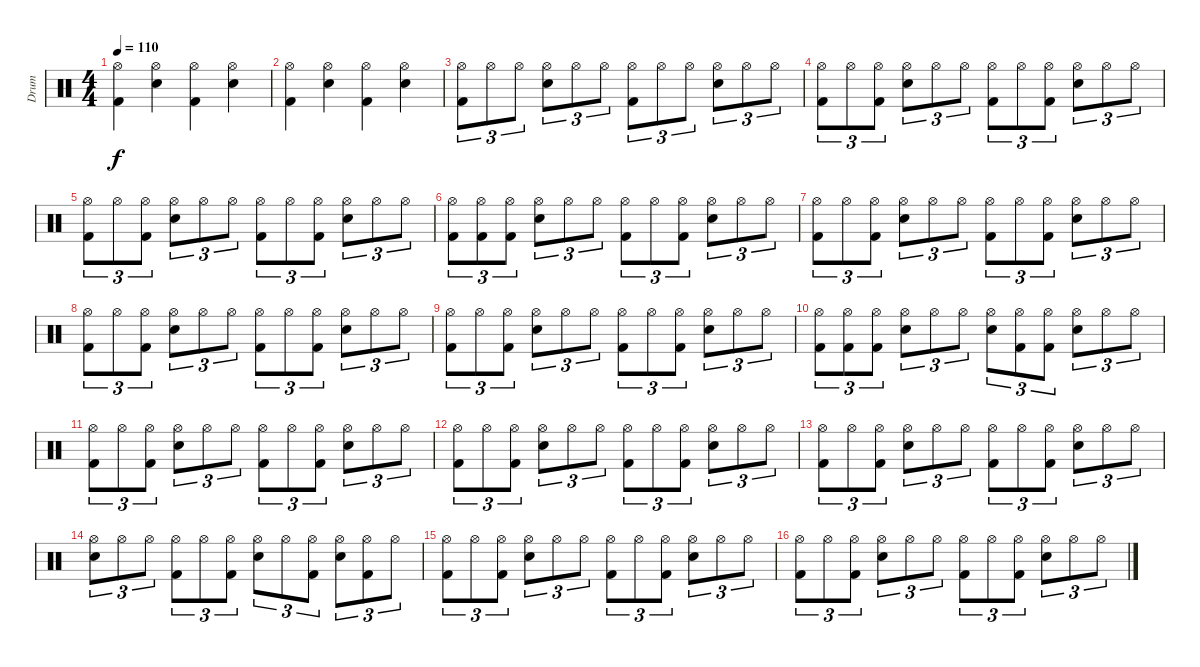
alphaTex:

\track ("Drum" "Drum") {instrument percussion}
\staff {score}
\articulation defaults
\ts (4 4)
\tempo 110
\clef neutral
\ks c
("Hi-Hat (open)" "Kick (hit) 2").4{dy f} ("Hi-Hat (open)" "Electric Snare (hit)").4 ("Hi-Hat (open)" "Kick (hit) 2").4 ("Hi-Hat (open)" "Electric Snare (hit)").4 |
("Hi-Hat (open)" "Kick (hit) 2").4 ("Hi-Hat (open)" "Electric Snare (hit)").4 ("Hi-Hat (open)" "Kick (hit) 2").4 ("Hi-Hat (open)" "Electric Snare (hit)").4 |
("Hi-Hat (open)" "Kick (hit) 2").8{tu (3 2)} "Hi-Hat (open)".8{tu (3 2)} "Hi-Hat (open)".8{tu (3 2)} ("Hi-Hat (open)" "Electric Snare (hit)").8{tu (3 2)} "Hi-Hat (open)".8{tu (3 2)} "Hi-Hat (open)".8{tu (3 2)} ("Hi-Hat (open)" "Kick (hit) 2").8{tu (3 2)} "Hi-Hat (open)".8{tu (3 2)} "Hi-Hat (open)".8{tu (3 2)} ("Hi-Hat (open)" "Electric Snare (hit)").8{tu (3 2)} "Hi-Hat (open)".8{tu (3 2)} "Hi-Hat (open)".8{tu (3 2)} |
("Hi-Hat (open)" "Kick (hit) 2").8{tu (3 2)} "Hi-Hat (open)".8{tu (3 2)} ("Hi-Hat (open)" "Kick (hit) 2").8{tu (3 2)} ("Hi-Hat (open)" "Electric Snare (hit)").8{tu (3 2)} "Hi-Hat (open)".8{tu (3 2)} "Hi-Hat (open)".8{tu (3 2)} ("Hi-Hat (open)" "Kick (hit) 2").8{tu (3 2)} "Hi-Hat (open)".8{tu (3 2)} ("Hi-Hat (open)" "Kick (hit) 2").8{tu (3 2)} ("Hi-Hat (open)" "Electric Snare (hit)").8{tu (3 2)} "Hi-Hat (open)".8{tu (3 2)} "Hi-Hat (open)".8{tu (3 2)} |
("Hi-Hat (open)" "Kick (hit) 2").8{tu (3 2)} "Hi-Hat (open)".8{tu (3 2)} ("Hi-Hat (open)" "Kick (hit) 2").8{tu (3 2)} ("Hi-Hat (open)" "Electric Snare (hit)").8{tu (3 2)} "Hi-Hat (open)".8{tu (3 2)} "Hi-Hat (open)".8{tu (3 2)} ("Hi-Hat (open)" "Kick (hit) 2").8{tu (3 2)} "Hi-Hat (open)".8{tu (3 2)} ("Hi-Hat (open)" "Kick (hit) 2").8{tu (3 2)} ("Hi-Hat (open)" "Electric Snare (hit)").8{tu (3 2)} "Hi-Hat (open)".8{tu (3 2)} "Hi-Hat (open)".8{tu (3 2)} |
("Hi-Hat (open)" "Kick (hit) 2").8{tu (3 2)} ("Hi-Hat (open)" "Kick (hit) 2").8{tu (3 2)} ("Hi-Hat (open)" "Kick (hit) 2").8{tu (3 2)} ("Hi-Hat (open)" "Electric Snare (hit)").8{tu (3 2)} "Hi-Hat (open)".8{tu (3 2)} "Hi-Hat (open)".8{tu (3 2)} ("Hi-Hat (open)" "Kick (hit) 2").8{tu (3 2)} "Hi-Hat (open)".8{tu (3 2)} ("Hi-Hat (open)" "Kick (hit) 2").8{tu (3 2)} ("Hi-Hat (open)" "Electric Snare (hit)").8{tu (3 2)} "Hi-Hat (open)".8{tu (3 2)} "Hi-Hat (open)".8{tu (3 2)} |
("Hi-Hat (open)" "Kick (hit) 2").8{tu (3 2)} "Hi-Hat (open)".8{tu (3 2)} ("Hi-Hat (open)" "Kick (hit) 2").8{tu (3 2)} ("Hi-Hat (open)" "Electric Snare (hit)").8{tu (3 2)} "Hi-Hat (open)".8{tu (3 2)} "Hi-Hat (open)".8{tu (3 2)} ("Hi-Hat (open)" "Kick (hit) 2").8{tu (3 2)} "Hi-Hat (open)".8{tu (3 2)} ("Hi-Hat (open)" "Kick (hit) 2").8{tu (3 2)} ("Hi-Hat (open)" "Electric Snare (hit)").8{tu (3 2)} "Hi-Hat (open)".8{tu (3 2)} "Hi-Hat (open)".8{tu (3 2)} |
("Hi-Hat (open)" "Kick (hit) 2").8{tu (3 2)} "Hi-Hat (open)".8{tu (3 2)} ("Hi-Hat (open)" "Kick (hit) 2").8{tu (3 2)} ("Hi-Hat (open)" "Electric Snare (hit)").8{tu (3 2)} "Hi-Hat (open)".8{tu (3 2)} "Hi-Hat (open)".8{tu (3 2)} ("Hi-Hat (open)" "Kick (hit) 2").8{tu (3 2)} "Hi-Hat (open)".8{tu (3 2)} ("Hi-Hat (open)" "Kick (hit) 2").8{tu (3 2)} ("Hi-Hat (open)" "Electric Snare (hit)").8{tu (3 2)} "Hi-Hat (open)".8{tu (3 2)} "Hi-Hat (open)".8{tu (3 2)} |
("Hi-Hat (open)" "Kick (hit) 2").8{tu (3 2)} "Hi-Hat (open)".8{tu (3 2)} ("Hi-Hat (open)" "Kick (hit) 2").8{tu (3 2)} ("Hi-Hat (open)" "Electric Snare (hit)").8{tu (3 2)} "Hi-Hat (open)".8{tu (3 2)} "Hi-Hat (open)".8{tu (3 2)} ("Hi-Hat (open)" "Kick (hit) 2").8{tu (3 2)} "Hi-Hat (open)".8{tu (3 2)} ("Hi-Hat (open)" "Kick (hit) 2").8{tu (3 2)} ("Hi-Hat (open)" "Electric Snare (hit)").8{tu (3 2)} "Hi-Hat (open)".8{tu (3 2)} "Hi-Hat (open)".8{tu (3 2)} |
("Hi-Hat (open)" "Kick (hit) 2").8{tu (3 2)} ("Hi-Hat (open)" "Kick (hit) 2").8{tu (3 2)} ("Hi-Hat (open)" "Kick (hit) 2").8{tu (3 2)} ("Hi-Hat (open)" "Electric Snare (hit)").8{tu (3 2)} "Hi-Hat (open)".8{tu (3 2)} "Hi-Hat (open)".8{tu (3 2)} ("Hi-Hat (open)" "Electric Snare (hit)").8{tu (3 2)} ("Hi-Hat (open)" "Kick (hit) 2").8{tu (3 2)} ("Hi-Hat (open)" "Kick (hit) 2").8{tu (3 2)} ("Hi-Hat (open)" "Electric Snare (hit)").8{tu (3 2)} "Hi-Hat (open)".8{tu (3 2)} "Hi-Hat (open)".8{tu (3 2)} |
("Hi-Hat (open)" "Kick (hit) 2").8{tu (3 2)} "Hi-Hat (open)".8{tu (3 2)} ("Hi-Hat (open)" "Kick (hit) 2").8{tu (3 2)} ("Hi-Hat (open)" "Electric Snare (hit)").8{tu (3 2)} "Hi-Hat (open)".8{tu (3 2)} "Hi-Hat (open)".8{tu (3 2)} ("Hi-Hat (open)" "Kick (hit) 2").8{tu (3 2)} "Hi-Hat (open)".8{tu (3 2)} ("Hi-Hat (open)" "Kick (hit) 2").8{tu (3 2)} ("Hi-Hat (open)" "Electric Snare (hit)").8{tu (3 2)} "Hi-Hat (open)".8{tu (3 2)} "Hi-Hat (open)".8{tu (3 2)} |
("Hi-Hat (open)" "Kick (hit) 2").8{tu (3 2)} "Hi-Hat (open)".8{tu (3 2)} ("Hi-Hat (open)" "Kick (hit) 2").8{tu (3 2)} ("Hi-Hat (open)" "Electric Snare (hit)").8{tu (3 2)} "Hi-Hat (open)".8{tu (3 2)} "Hi-Hat (open)".8{tu (3 2)} ("Hi-Hat (open)" "Kick (hit) 2").8{tu (3 2)} "Hi-Hat (open)".8{tu (3 2)} ("Hi-Hat (open)" "Kick (hit) 2").8{tu (3 2)} ("Hi-Hat (open)" "Electric Snare (hit)").8{tu (3 2)} "Hi-Hat (open)".8{tu (3 2)} "Hi-Hat (open)".8{tu (3 2)} |
("Hi-Hat (open)" "Kick (hit) 2").8{tu (3 2)} "Hi-Hat (open)".8{tu (3 2)} ("Hi-Hat (open)" "Kick (hit) 2").8{tu (3 2)} ("Hi-Hat (open)" "Electric Snare (hit)").8{tu (3 2)} "Hi-Hat (open)".8{tu (3 2)} "Hi-Hat (open)".8{tu (3 2)} ("Hi-Hat (open)" "Kick (hit) 2").8{tu (3 2)} "Hi-Hat (open)".8{tu (3 2)} ("Hi-Hat (open)" "Kick (hit) 2").8{tu (3 2)} ("Hi-Hat (open)" "Electric Snare (hit)").8{tu (3 2)} "Hi-Hat (open)".8{tu (3 2)} "Hi-Hat (open)".8{tu (3 2)} |
("Hi-Hat (open)" "Electric Snare (hit)").8{tu (3 2)} "Hi-Hat (open)".8{tu (3 2)} "Hi-Hat (open)".8{tu (3 2)} ("Hi-Hat (open)" "Kick (hit) 2").8{tu (3 2)} "Hi-Hat (open)".8{tu (3 2)} ("Hi-Hat (open)" "Kick (hit) 2").8{tu (3 2)} ("Hi-Hat (open)" "Electric Snare (hit)").8{tu (3 2)} "Hi-Hat (open)".8{tu (3 2)} ("Hi-Hat (open)" "Kick (hit) 2").8{tu (3 2)} ("Hi-Hat (open)" "Electric Snare (hit)").8{tu (3 2)} ("Hi-Hat (open)" "Kick (hit) 2").8{tu (3 2)} "Hi-Hat (open)".8{tu (3 2)} |
("Hi-Hat (open)" "Kick (hit) 2").8{tu (3 2)} "Hi-Hat (open)".8{tu (3 2)} ("Hi-Hat (open)" "Kick (hit) 2").8{tu (3 2)} ("Hi-Hat (open)" "Electric Snare (hit)").8{tu (3 2)} "Hi-Hat (open)".8{tu (3 2)} "Hi-Hat (open)".8{tu (3 2)} ("Hi-Hat (open)" "Kick (hit) 2").8{tu (3 2)} "Hi-Hat (open)".8{tu (3 2)} ("Hi-Hat (open)" "Kick (hit) 2").8{tu (3 2)} ("Hi-Hat (open)" "Electric Snare (hit)").8{tu (3 2)} "Hi-Hat (open)".8{tu (3 2)} "Hi-Hat (open)".8{tu (3 2)} |
("Hi-Hat (open)" "Kick (hit) 2").8{tu (3 2)} "Hi-Hat (open)".8{tu (3 2)} ("Hi-Hat (open)" "Kick (hit) 2").8{tu (3 2)} ("Hi-Hat (open)" "Electric Snare (hit)").8{tu (3 2)} "Hi-Hat (open)".8{tu (3 2)} "Hi-Hat (open)".8{tu (3 2)} ("Hi-Hat (open)" "Kick (hit) 2").8{tu (3 2)} "Hi-Hat (open)".8{tu (3 2)} ("Hi-Hat (open)" "Kick (hit) 2").8{tu (3 2)} ("Hi-Hat (open)" "Electric Snare (hit)").8{tu (3 2)} "Hi-Hat (open)".8{tu (3 2)} "Hi-Hat (open)".8{tu (3 2)}
